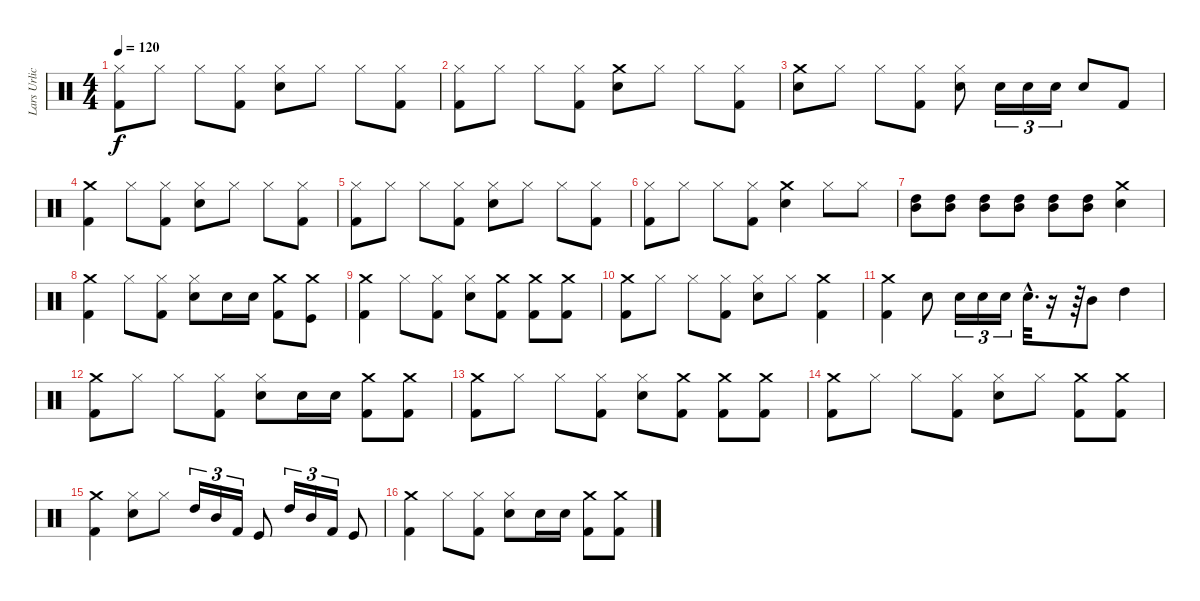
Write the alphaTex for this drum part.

\track ("Lars Urlich (drums)" "Lars Urlic") {instrument percussion}
\staff {score}
\articulation defaults
\ts (4 4)
\tempo 120
\clef neutral
\ks c
("Hi-Hat (closed)" "Kick (hit) 2").8{dy f} "Hi-Hat (closed)".8 "Hi-Hat (closed)".8 ("Kick (hit) 2" "Hi-Hat (closed)").8 ("Snare (hit) 2" "Hi-Hat (closed)").8 "Hi-Hat (closed)".8 "Hi-Hat (closed)".8 ("Kick (hit) 2" "Hi-Hat (closed)").8 |
("Hi-Hat (closed)" "Kick (hit) 2").8 "Hi-Hat (closed)".8 "Hi-Hat (closed)".8 ("Kick (hit) 2" "Hi-Hat (closed)").8 ("Crash medium (hit)" "Snare (hit) 2").8 "Hi-Hat (closed)".8 "Hi-Hat (closed)".8 ("Kick (hit) 2" "Hi-Hat (closed)").8 |
("Snare (hit) 2" "Crash medium (hit)").8 "Hi-Hat (closed)".8 "Hi-Hat (closed)".8 ("Kick (hit) 2" "Hi-Hat (closed)").8 ("Snare (hit) 2" "Hi-Hat (closed)").8 "Snare (hit) 2".16{tu (3 2)} "Snare (hit) 2".16{tu (3 2)} "Snare (hit) 2".16{tu (3 2)} "Snare (hit) 2".8 "Kick (hit) 2".8 |
("Kick (hit) 2" "Crash medium (hit)").4 "Hi-Hat (closed)".8 ("Kick (hit) 2" "Hi-Hat (closed)").8 ("Snare (hit) 2" "Hi-Hat (closed)").8 "Hi-Hat (closed)".8 "Hi-Hat (closed)".8 ("Kick (hit) 2" "Hi-Hat (closed)").8 |
("Kick (hit) 2" "Hi-Hat (closed)").8 "Hi-Hat (closed)".8 "Hi-Hat (closed)".8 ("Kick (hit) 2" "Hi-Hat (closed)").8 ("Snare (hit) 2" "Hi-Hat (closed)").8 "Hi-Hat (closed)".8 "Hi-Hat (closed)".8 ("Kick (hit) 2" "Hi-Hat (closed)").8 |
("Hi-Hat (closed)" "Kick (hit) 2").8 "Hi-Hat (closed)".8 "Hi-Hat (closed)".8 ("Kick (hit) 2" "Hi-Hat (closed)").8 ("Crash medium (hit)" "Snare (hit) 2").4 "Hi-Hat (closed)".8 "Hi-Hat (closed)".8 |
("High Tom (hit)" "Mid Tom (hit)").8 ("Mid Tom (hit)" "High Tom (hit)").8 ("Mid Tom (hit)" "High Tom (hit)").8 ("Mid Tom (hit)" "High Tom (hit)").8 ("Mid Tom (hit)" "High Tom (hit)").8 ("Mid Tom (hit)" "High Tom (hit)").8 ("Snare (hit) 2" "Crash medium (hit)").4 |
("Crash medium (hit)" "Kick (hit) 2").4 "Hi-Hat (closed)".8 ("Kick (hit) 2" "Hi-Hat (closed)").8 ("Snare (hit) 2" "Hi-Hat (closed)").8 "Snare (hit) 2".16 "Snare (hit) 2".16 ("Crash medium (hit)" "Kick (hit) 2").8 ("Crash medium (hit)" "Kick (hit)").8 |
("Kick (hit) 2" "Crash medium (hit)").4 "Hi-Hat (closed)".8 ("Kick (hit) 2" "Hi-Hat (closed)").8 ("Hi-Hat (closed)" "Snare (hit) 2").8 ("Kick (hit) 2" "Crash medium (hit)").8 ("Kick (hit) 2" "Crash medium (hit)").8 ("Kick (hit) 2" "Crash medium (hit)").8 |
("Kick (hit) 2" "Crash medium (hit)").8 "Hi-Hat (closed)".8 "Hi-Hat (closed)".8 ("Kick (hit) 2" "Hi-Hat (closed)").8 ("Snare (hit) 2" "Hi-Hat (closed)").8 "Hi-Hat (closed)".8 ("Kick (hit) 2" "Crash medium (hit)").4 |
("Kick (hit) 2" "Crash medium (hit)").4 "Snare (hit) 2".8 "Snare (hit) 2".16{tu (3 2)} "Snare (hit) 2".16{tu (3 2)} "Snare (hit) 2".16{tu (3 2)} "Snare (hit) 2"{hac}.32{d} r.16 r.64 "Mid Tom (hit)".8 "High Tom (hit)".4 |
("Kick (hit) 2" "Crash medium (hit)").8 "Hi-Hat (closed)".8 "Hi-Hat (closed)".8 ("Kick (hit) 2" "Hi-Hat (closed)").8 ("Snare (hit) 2" "Hi-Hat (closed)").8 "Snare (hit) 2".16 "Snare (hit) 2".16 ("Kick (hit) 2" "Crash medium (hit)").8 ("Kick (hit) 2" "Crash medium (hit)").8 |
("Kick (hit) 2" "Crash medium (hit)").8 "Hi-Hat (closed)".8 "Hi-Hat (closed)".8 ("Kick (hit) 2" "Hi-Hat (closed)").8 ("Snare (hit) 2" "Hi-Hat (closed)").8 ("Kick (hit) 2" "Crash medium (hit)").8 ("Kick (hit) 2" "Crash medium (hit)").8 ("Kick (hit) 2" "Crash medium (hit)").8 |
("Kick (hit) 2" "Crash medium (hit)").8 "Hi-Hat (closed)".8 "Hi-Hat (closed)".8 ("Kick (hit) 2" "Hi-Hat (closed)").8 ("Snare (hit) 2" "Hi-Hat (closed)").8 "Hi-Hat (closed)".8 ("Kick (hit) 2" "Crash medium (hit)").8 ("Kick (hit) 2" "Crash medium (hit)").8 |
("Kick (hit) 2" "Crash medium (hit)").4 ("Hi-Hat (closed)" "Snare (hit) 2").8 "Hi-Hat (closed)".8 "High Tom (hit)".16{tu (3 2)} "Mid Tom (hit)".16{tu (3 2)} "Kick (hit) 2".16{tu (3 2)} "Kick (hit)".8 "High Tom (hit)".16{tu (3 2)} "Mid Tom (hit)".16{tu (3 2)} "Kick (hit) 2".16{tu (3 2)} "Kick (hit)".8 |
("Kick (hit) 2" "Crash medium (hit)").4 "Hi-Hat (closed)".8 ("Kick (hit) 2" "Hi-Hat (closed)").8 ("Snare (hit) 2" "Hi-Hat (closed)").8 "Snare (hit) 2".16 "Snare (hit) 2".16 ("Crash medium (hit)" "Kick (hit) 2").8 ("Crash medium (hit)" "Kick (hit) 2").8
